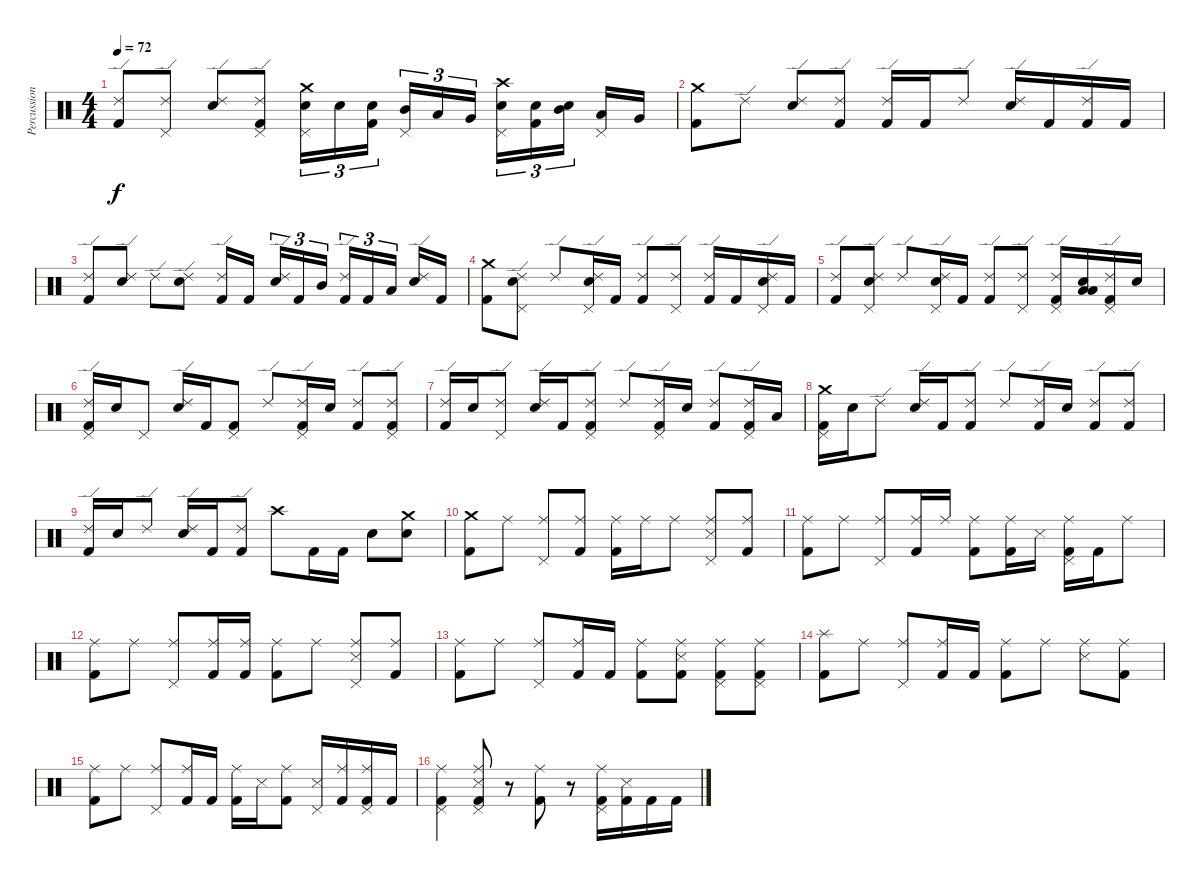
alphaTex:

\track ("Percussion" "Percussion") {instrument percussion}
\staff {score}
\articulation defaults
\ts (4 4)
\tempo 72
\clef neutral
\ks c
("Kick (hit) 2" "Ride (edge) 2").8{dy f} ("Pedal Hi-Hat (hit)" "Ride (edge) 2").8 ("Snare (hit) 2" "Ride (edge) 2").8 ("Kick (hit) 2" "Pedal Hi-Hat (hit)" "Ride (edge) 2").8 ("Snare (hit) 2" "Pedal Hi-Hat (hit)" "Crash medium (hit)").16{tu (3 2)} "Snare (hit) 2".16{tu (3 2)} ("Snare (hit) 2" "Kick (hit) 2").16{tu (3 2)} ("Mid Tom (hit)" "Pedal Hi-Hat (hit)").16{tu (3 2)} "Low Tom (hit)".16{tu (3 2)} "Very Low Tom (hit)".16{tu (3 2)} ("Snare (hit) 2" "Pedal Hi-Hat (hit)" "Crash high (hit)").16{tu (3 2)} ("Kick (hit) 2" "Snare (hit) 2").16{tu (3 2)} ("Mid Tom (hit)" "Snare (hit) 2").16{tu (3 2)} ("Low Tom (hit)" "Pedal Hi-Hat (hit)").16 "Very Low Tom (hit)".16 |
("Kick (hit) 2" "Crash medium (hit)").8 "Ride (edge) 2".8 ("Snare (hit) 2" "Ride (edge) 2").8 ("Kick (hit) 2" "Ride (edge) 2").8 ("Kick (hit) 2" "Ride (edge) 2").16 "Kick (hit) 2".16 "Ride (edge) 2".8 ("Snare (hit) 2" "Ride (edge) 2").16 "Kick (hit) 2".16 ("Kick (hit) 2" "Ride (edge) 2").16 "Kick (hit) 2".16 |
("Kick (hit) 2" "Ride (edge) 2").8 ("Snare (hit) 2" "Ride (edge) 2").8 "Ride (edge) 2".8 ("Snare (hit) 2" "Ride (edge) 2").8 ("Kick (hit) 2" "Ride (edge) 2").16 "Kick (hit) 2".16 ("Snare (hit) 2" "Ride (edge) 2").16{tu (3 2)} "Kick (hit) 2".16{tu (3 2)} "Mid Tom (hit)".16{tu (3 2)} ("Kick (hit) 2" "Ride (edge) 2").16{tu (3 2)} "Kick (hit) 2".16{tu (3 2)} "Low Tom (hit)".16{tu (3 2)} ("Snare (hit) 2" "Ride (edge) 2").16 "Kick (hit) 2".16 |
("Kick (hit) 2" "Crash medium (hit)").8 ("Snare (hit) 2" "Ride (edge) 2" "Pedal Hi-Hat (hit)").8 "Ride (edge) 2".8 ("Snare (hit) 2" "Ride (edge) 2" "Pedal Hi-Hat (hit)").16 "Kick (hit) 2".16 ("Kick (hit) 2" "Ride (edge) 2").8 ("Ride (edge) 2" "Pedal Hi-Hat (hit)").8 ("Kick (hit) 2" "Ride (edge) 2").16 "Kick (hit) 2".16 ("Snare (hit) 2" "Ride (edge) 2" "Pedal Hi-Hat (hit)").16 "Kick (hit) 2".16 |
("Kick (hit) 2" "Ride (edge) 2").8 ("Snare (hit) 2" "Ride (edge) 2" "Pedal Hi-Hat (hit)").8 "Ride (edge) 2".8 ("Snare (hit) 2" "Ride (edge) 2" "Pedal Hi-Hat (hit)").16 "Kick (hit) 2".16 ("Kick (hit) 2" "Ride (edge) 2").8 ("Ride (edge) 2" "Pedal Hi-Hat (hit)").8 ("Kick (hit) 2" "Ride (edge) 2" "Pedal Hi-Hat (hit)").16 ("Snare (hit) 2" "Low Tom (hit)" "Low Floor Tom (hit)").16 ("Kick (hit) 2" "Pedal Hi-Hat (hit)" "Ride (edge) 2").16 "Snare (hit) 2".16 |
("Kick (hit) 2" "Pedal Hi-Hat (hit)" "Ride (edge) 2").16 "Snare (hit) 2".16 "Pedal Hi-Hat (hit)".8 ("Snare (hit) 2" "Ride (edge) 2").16 "Kick (hit) 2".16 ("Kick (hit) 2" "Pedal Hi-Hat (hit)").8 "Ride (edge) 2".8 ("Kick (hit) 2" "Pedal Hi-Hat (hit)" "Ride (edge) 2").16 "Snare (hit) 2".16 ("Kick (hit) 2" "Ride (edge) 2").8 ("Kick (hit) 2" "Pedal Hi-Hat (hit)" "Ride (edge) 2").8 |
("Kick (hit) 2" "Ride (edge) 2").16 "Snare (hit) 2".16 ("Ride (edge) 2" "Pedal Hi-Hat (hit)").8 ("Snare (hit) 2" "Ride (edge) 2").16 "Kick (hit) 2".16 ("Kick (hit) 2" "Ride (edge) 2" "Pedal Hi-Hat (hit)").8 "Ride (edge) 2".8 ("Kick (hit) 2" "Ride (edge) 2" "Pedal Hi-Hat (hit)").16 "Snare (hit) 2".16 ("Kick (hit) 2" "Ride (edge) 2").8 ("Kick (hit) 2" "Ride (edge) 2" "Pedal Hi-Hat (hit)").16 "Low Tom (hit)".16 |
("Kick (hit) 2" "Crash medium (hit)" "Pedal Hi-Hat (hit)").16 "Snare (hit) 2".16 "Ride (edge) 2".8 ("Snare (hit) 2" "Ride (edge) 2").16 "Kick (hit) 2".16 ("Kick (hit) 2" "Ride (edge) 2").8 "Ride (edge) 2".8 ("Kick (hit) 2" "Ride (edge) 2").16 "Snare (hit) 2".16 ("Kick (hit) 2" "Ride (edge) 2").8 ("Kick (hit) 2" "Ride (edge) 2").8 |
("Kick (hit) 2" "Ride (edge) 2").16 "Snare (hit) 2".16 "Ride (edge) 2".8 ("Snare (hit) 2" "Ride (edge) 2").16 "Kick (hit) 2".16 ("Kick (hit) 2" "Ride (edge) 2").8 "Crash high (hit)".8 "Kick (hit) 2".16 "Kick (hit) 2".16 "Snare (hit) 2".8 ("Snare (hit) 2" "Crash medium (hit)").8 |
("Kick (hit) 2" "Crash medium (hit)").8 "Ride (middle)".8 ("Ride (middle)" "Pedal Hi-Hat (hit)").8 ("Kick (hit) 2" "Ride (middle)").8 ("Kick (hit) 2" "Ride (middle)").16 "Ride (middle)".16 "Ride (middle)".8 ("Snare (side stick) 3" "Ride (middle)" "Pedal Hi-Hat (hit)").8 ("Kick (hit) 2" "Ride (middle)").8 |
("Kick (hit) 2" "Ride (middle)").8 "Ride (middle)".8 ("Pedal Hi-Hat (hit)" "Ride (middle)").8 ("Kick (hit) 2" "Ride (middle)").16 "Ride (middle)".16 ("Kick (hit) 2" "Ride (middle)").8 ("Kick (hit) 2" "Ride (middle)").16 "Snare (side stick) 3".16 ("Kick (hit) 2" "Ride (middle)" "Pedal Hi-Hat (hit)").16 "Kick (hit) 2".16 "Ride (middle)".8 |
("Kick (hit) 2" "Ride (middle)").8 "Ride (middle)".8 ("Pedal Hi-Hat (hit)" "Ride (middle)").8 ("Kick (hit) 2" "Ride (middle)").16 ("Kick (hit) 2" "Ride (middle)").16 ("Kick (hit) 2" "Ride (middle)").8 "Ride (middle)".8 ("Snare (side stick) 3" "Ride (middle)" "Pedal Hi-Hat (hit)").8 ("Kick (hit) 2" "Ride (middle)").8 |
("Kick (hit) 2" "Ride (middle)").8 "Ride (middle)".8 ("Pedal Hi-Hat (hit)" "Ride (middle)").8 ("Kick (hit) 2" "Ride (middle)").16 "Kick (hit) 2".16 ("Kick (hit) 2" "Ride (middle)").8 ("Snare (side stick) 3" "Kick (hit) 2" "Ride (middle)").8 ("Kick (hit) 2" "Ride (middle)" "Pedal Hi-Hat (hit)").8 ("Kick (hit) 2" "Ride (middle)" "Pedal Hi-Hat (hit)").8 |
("Kick (hit) 2" "Splash (hit)").8 "Ride (middle)".8 ("Pedal Hi-Hat (hit)" "Ride (middle)").8 ("Kick (hit) 2" "Ride (middle)").16 "Kick (hit) 2".16 ("Kick (hit) 2" "Ride (middle)").8 "Ride (middle)".8 ("Snare (side stick) 3" "Ride (middle)").8 ("Kick (hit) 2" "Ride (middle)").8 |
("Kick (hit) 2" "Ride (middle)").8 "Ride (middle)".8 ("Pedal Hi-Hat (hit)" "Ride (middle)").8 ("Kick (hit) 2" "Ride (middle)").16 "Kick (hit) 2".16 ("Kick (hit) 2" "Ride (middle)").16 "Snare (side stick) 3".16 ("Kick (hit) 2" "Ride (middle)").8 ("Snare (side stick) 3" "Pedal Hi-Hat (hit)").16 ("Kick (hit) 2" "Ride (middle)").16 ("Kick (hit) 2" "Ride (middle)" "Pedal Hi-Hat (hit)").16 "Kick (hit) 2".16 |
("Kick (hit) 2" "Pedal Hi-Hat (hit)" "Ride (middle)").4 ("Kick (hit) 2" "Snare (side stick) 3" "Ride (middle)" "Pedal Hi-Hat (hit)").8 r.8 ("Kick (hit) 2" "Ride (middle)").8 r.8 ("Kick (hit) 2" "Ride (middle)" "Pedal Hi-Hat (hit)").16 ("Kick (hit) 2" "Snare (side stick) 3").16 "Kick (hit) 2".16 "Kick (hit) 2".16
